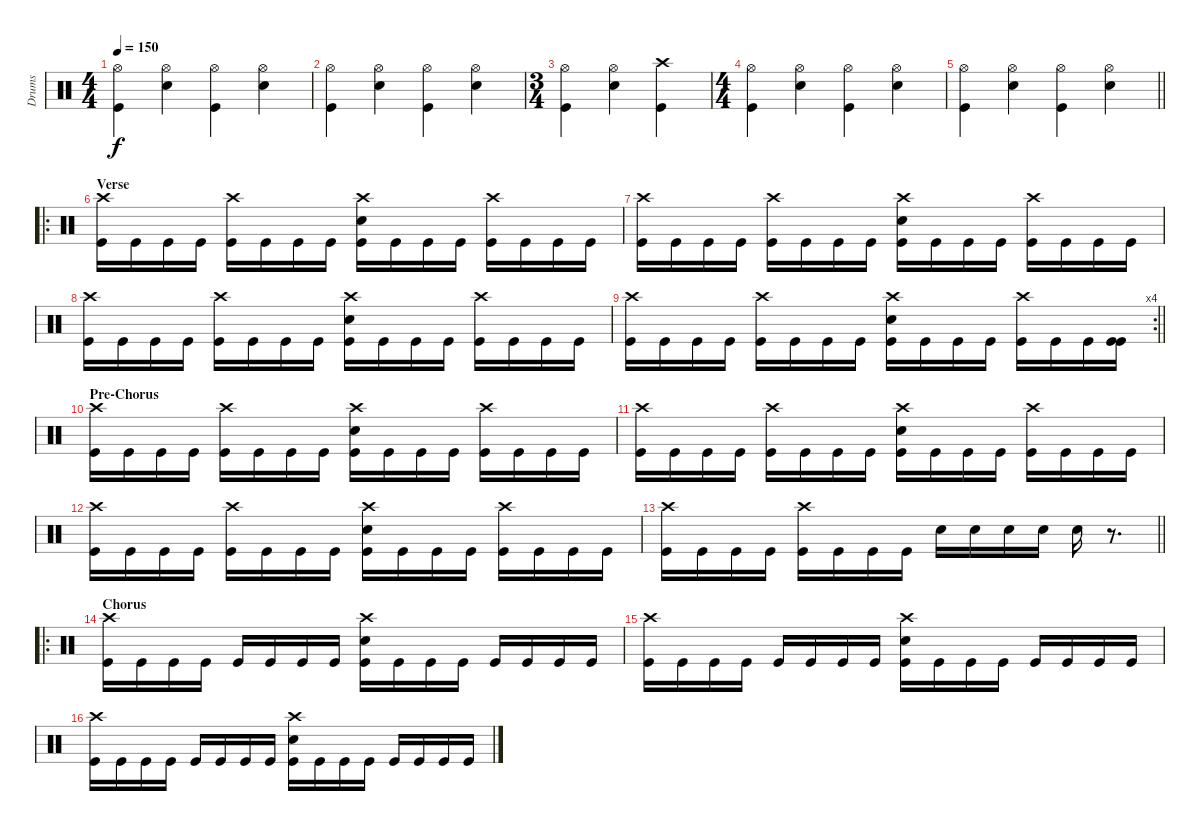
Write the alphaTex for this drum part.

\track ("Drums" "Drums") {instrument percussion}
\staff {score}
\articulation defaults
\ts (4 4)
\tempo 150
\clef neutral
\ks c
("Hi-Hat (open)" "Kick (hit)").4{dy f} ("Hi-Hat (open)" "Electric Snare (hit)").4 ("Hi-Hat (open)" "Kick (hit)").4 ("Hi-Hat (open)" "Electric Snare (hit)").4 |
("Hi-Hat (open)" "Kick (hit)").4 ("Hi-Hat (open)" "Electric Snare (hit)").4 ("Hi-Hat (open)" "Kick (hit)").4 ("Hi-Hat (open)" "Electric Snare (hit)").4 |
\ts (3 4)
("Hi-Hat (open)" "Kick (hit)").4 ("Hi-Hat (open)" "Electric Snare (hit)").4 ("Crash high (hit)" "Kick (hit)").4 |
\ts (4 4)
("Hi-Hat (open)" "Kick (hit)").4 ("Hi-Hat (open)" "Electric Snare (hit)").4 ("Hi-Hat (open)" "Kick (hit)").4 ("Hi-Hat (open)" "Electric Snare (hit)").4 |
\barLineRight lightlight
("Hi-Hat (open)" "Kick (hit)").4 ("Hi-Hat (open)" "Electric Snare (hit)").4 ("Hi-Hat (open)" "Kick (hit)").4 ("Hi-Hat (open)" "Electric Snare (hit)").4 |
\ro
\section ("" "Verse")
("Crash high (hit)" "Kick (hit)").16 "Kick (hit)".16 "Kick (hit)".16 "Kick (hit)".16 ("Crash high (hit)" "Kick (hit)").16 "Kick (hit)".16 "Kick (hit)".16 "Kick (hit)".16 ("Electric Snare (hit)" "Crash high (hit)" "Kick (hit)").16 "Kick (hit)".16 "Kick (hit)".16 "Kick (hit)".16 ("Crash high (hit)" "Kick (hit)").16 "Kick (hit)".16 "Kick (hit)".16 "Kick (hit)".16 |
("Crash high (hit)" "Kick (hit)").16 "Kick (hit)".16 "Kick (hit)".16 "Kick (hit)".16 ("Crash high (hit)" "Kick (hit)").16 "Kick (hit)".16 "Kick (hit)".16 "Kick (hit)".16 ("Electric Snare (hit)" "Crash high (hit)" "Kick (hit)").16 "Kick (hit)".16 "Kick (hit)".16 "Kick (hit)".16 ("Crash high (hit)" "Kick (hit)").16 "Kick (hit)".16 "Kick (hit)".16 "Kick (hit)".16 |
("Crash high (hit)" "Kick (hit)").16 "Kick (hit)".16 "Kick (hit)".16 "Kick (hit)".16 ("Crash high (hit)" "Kick (hit)").16 "Kick (hit)".16 "Kick (hit)".16 "Kick (hit)".16 ("Electric Snare (hit)" "Crash high (hit)" "Kick (hit)").16 "Kick (hit)".16 "Kick (hit)".16 "Kick (hit)".16 ("Crash high (hit)" "Kick (hit)").16 "Kick (hit)".16 "Kick (hit)".16 "Kick (hit)".16 |
\rc 4
\barLineRight lightlight
("Crash high (hit)" "Kick (hit)").16 "Kick (hit)".16 "Kick (hit)".16 "Kick (hit)".16 ("Crash high (hit)" "Kick (hit)").16 "Kick (hit)".16 "Kick (hit)".16 "Kick (hit)".16 ("Electric Snare (hit)" "Crash high (hit)" "Kick (hit)").16 "Kick (hit)".16 "Kick (hit)".16 "Kick (hit)".16 ("Crash high (hit)" "Kick (hit)").16 "Kick (hit)".16 "Kick (hit)".16 ("Kick (hit)" "Kick (hit)").16 |
\section ("" "Pre-Chorus")
("Crash high (hit)" "Kick (hit)").16 "Kick (hit)".16 "Kick (hit)".16 "Kick (hit)".16 ("Crash high (hit)" "Kick (hit)").16 "Kick (hit)".16 "Kick (hit)".16 "Kick (hit)".16 ("Electric Snare (hit)" "Crash high (hit)" "Kick (hit)").16 "Kick (hit)".16 "Kick (hit)".16 "Kick (hit)".16 ("Crash high (hit)" "Kick (hit)").16 "Kick (hit)".16 "Kick (hit)".16 "Kick (hit)".16 |
("Crash high (hit)" "Kick (hit)").16 "Kick (hit)".16 "Kick (hit)".16 "Kick (hit)".16 ("Crash high (hit)" "Kick (hit)").16 "Kick (hit)".16 "Kick (hit)".16 "Kick (hit)".16 ("Electric Snare (hit)" "Crash high (hit)" "Kick (hit)").16 "Kick (hit)".16 "Kick (hit)".16 "Kick (hit)".16 ("Crash high (hit)" "Kick (hit)").16 "Kick (hit)".16 "Kick (hit)".16 "Kick (hit)".16 |
("Crash high (hit)" "Kick (hit)").16 "Kick (hit)".16 "Kick (hit)".16 "Kick (hit)".16 ("Crash high (hit)" "Kick (hit)").16 "Kick (hit)".16 "Kick (hit)".16 "Kick (hit)".16 ("Electric Snare (hit)" "Crash high (hit)" "Kick (hit)").16 "Kick (hit)".16 "Kick (hit)".16 "Kick (hit)".16 ("Crash high (hit)" "Kick (hit)").16 "Kick (hit)".16 "Kick (hit)".16 "Kick (hit)".16 |
\barLineRight lightlight
("Crash high (hit)" "Kick (hit)").16 "Kick (hit)".16 "Kick (hit)".16 "Kick (hit)".16 ("Crash high (hit)" "Kick (hit)").16 "Kick (hit)".16 "Kick (hit)".16 "Kick (hit)".16 "Electric Snare (hit)".16 "Electric Snare (hit)".16 "Electric Snare (hit)".16 "Electric Snare (hit)".16 "Electric Snare (hit)".16 r.8{d} |
\ro
\section ("" "Chorus")
("Crash high (hit)" "Kick (hit)").16 "Kick (hit)".16 "Kick (hit)".16 "Kick (hit)".16 "Kick (hit)".16 "Kick (hit)".16 "Kick (hit)".16 "Kick (hit)".16 ("Electric Snare (hit)" "Crash high (hit)" "Kick (hit)").16 "Kick (hit)".16 "Kick (hit)".16 "Kick (hit)".16 "Kick (hit)".16 "Kick (hit)".16 "Kick (hit)".16 "Kick (hit)".16 |
("Crash high (hit)" "Kick (hit)").16 "Kick (hit)".16 "Kick (hit)".16 "Kick (hit)".16 "Kick (hit)".16 "Kick (hit)".16 "Kick (hit)".16 "Kick (hit)".16 ("Electric Snare (hit)" "Crash high (hit)" "Kick (hit)").16 "Kick (hit)".16 "Kick (hit)".16 "Kick (hit)".16 "Kick (hit)".16 "Kick (hit)".16 "Kick (hit)".16 "Kick (hit)".16 |
("Crash high (hit)" "Kick (hit)").16 "Kick (hit)".16 "Kick (hit)".16 "Kick (hit)".16 "Kick (hit)".16 "Kick (hit)".16 "Kick (hit)".16 "Kick (hit)".16 ("Electric Snare (hit)" "Crash high (hit)" "Kick (hit)").16 "Kick (hit)".16 "Kick (hit)".16 "Kick (hit)".16 "Kick (hit)".16 "Kick (hit)".16 "Kick (hit)".16 "Kick (hit)".16
